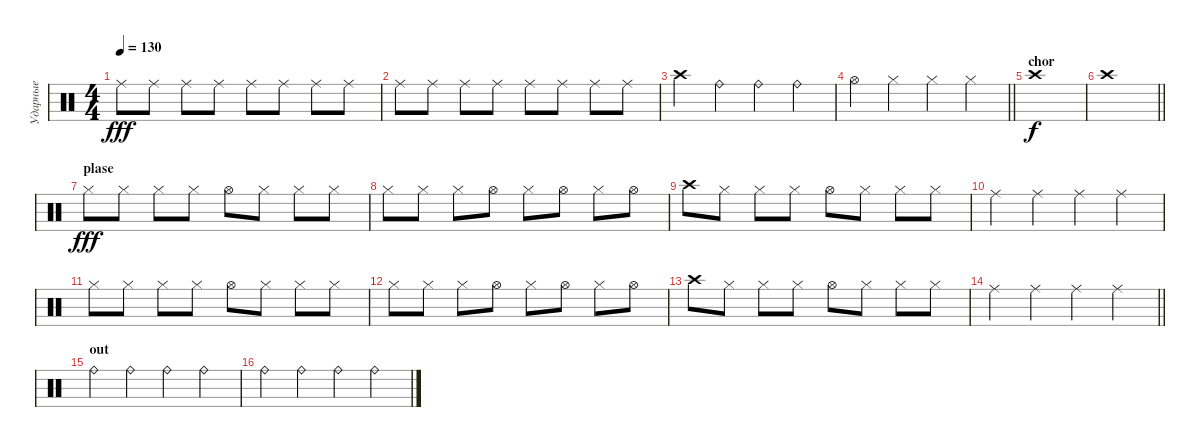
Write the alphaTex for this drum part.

\track ("Ударные" "Ударные") {instrument percussion}
\staff {score}
\articulation defaults
\ts (4 4)
\tempo 130
\clef neutral
\ks c "Ride (middle)".8{dy fff} "Ride (middle)".8 "Ride (middle)".8 "Ride (middle)".8 "Ride (middle)".8 "Ride (middle)".8 "Ride (middle)".8 "Ride (middle)".8
|
"Ride (middle)".8 "Ride (middle)".8 "Ride (middle)".8 "Ride (middle)".8 "Ride (middle)".8 "Ride (middle)".8 "Ride (middle)".8 "Ride (middle)".8 |
"Crash high (hit)".4 "Ride (bell)".4 "Ride (bell)".4 "Ride (bell)".4 |
\barLineRight lightlight "Hi-Hat (open)".4 "Hi-Hat (closed)".4 "Hi-Hat (closed)".4 "Hi-Hat (closed)".4
|
\section ("" "chor")
"Crash high (hit)".1{dy f} |
\barLineRight lightlight "Crash high (hit)".1
|
\section ("" "plase")
"Hi-Hat (closed)".8{dy fff} "Hi-Hat (closed)".8 "Hi-Hat (closed)".8 "Hi-Hat (closed)".8 "Hi-Hat (open)".8 "Hi-Hat (closed)".8 "Hi-Hat (closed)".8 "Hi-Hat (closed)".8 |
"Hi-Hat (closed)".8 "Hi-Hat (closed)".8 "Hi-Hat (closed)".8 "Hi-Hat (open)".8 "Hi-Hat (closed)".8 "Hi-Hat (open)".8 "Hi-Hat (closed)".8 "Hi-Hat (open)".8 |
"Crash high (hit)".8 "Hi-Hat (closed)".8 "Hi-Hat (closed)".8 "Hi-Hat (closed)".8 "Hi-Hat (open)".8 "Hi-Hat (closed)".8 "Hi-Hat (closed)".8 "Hi-Hat (closed)".8 |
"Ride (middle)".4 "Ride (middle)".4 "Ride (middle)".4 "Ride (middle)".4 |
"Hi-Hat (closed)".8 "Hi-Hat (closed)".8 "Hi-Hat (closed)".8 "Hi-Hat (closed)".8 "Hi-Hat (open)".8 "Hi-Hat (closed)".8 "Hi-Hat (closed)".8 "Hi-Hat (closed)".8 |
"Hi-Hat (closed)".8 "Hi-Hat (closed)".8 "Hi-Hat (closed)".8 "Hi-Hat (open)".8 "Hi-Hat (closed)".8 "Hi-Hat (open)".8 "Hi-Hat (closed)".8 "Hi-Hat (open)".8 |
"Crash high (hit)".8 "Hi-Hat (closed)".8 "Hi-Hat (closed)".8 "Hi-Hat (closed)".8 "Hi-Hat (open)".8 "Hi-Hat (closed)".8 "Hi-Hat (closed)".8 "Hi-Hat (closed)".8 |
\barLineRight lightlight "Ride (middle)".4 "Ride (middle)".4 "Ride (middle)".4 "Ride (middle)".4
|
\section ("" "out")
"Ride (bell)".4 "Ride (bell)".4 "Ride (bell)".4 "Ride (bell)".4 |
"Ride (bell)".4 "Ride (bell)".4 "Ride (bell)".4 "Ride (bell)".4
